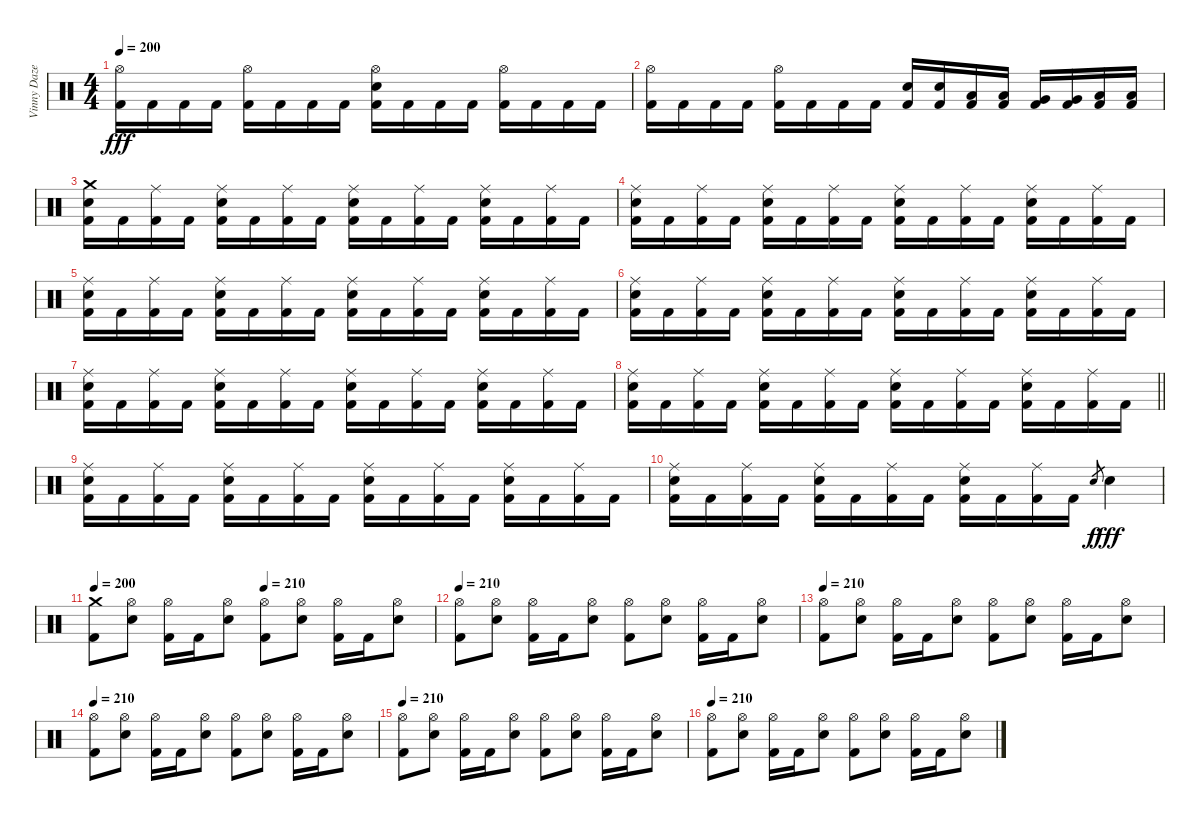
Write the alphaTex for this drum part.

\track ("Vinny Daze (R.I.P.)" "Vinny Daze") {instrument percussion}
\staff {score}
\articulation defaults
\ts (4 4)
\tempo 200
\clef neutral
\ks c
("Hi-Hat (open)" "Kick (hit) 2").16{dy fff} "Kick (hit) 2".16 "Kick (hit) 2".16 "Kick (hit) 2".16 ("Hi-Hat (open)" "Kick (hit) 2").16 "Kick (hit) 2".16 "Kick (hit) 2".16 "Kick (hit) 2".16 ("Hi-Hat (open)" "Electric Snare (hit)" "Kick (hit) 2").16 "Kick (hit) 2".16 "Kick (hit) 2".16 "Kick (hit) 2".16 ("Hi-Hat (open)" "Kick (hit) 2").16 "Kick (hit) 2".16 "Kick (hit) 2".16 "Kick (hit) 2".16 |
("Hi-Hat (open)" "Kick (hit) 2").16 "Kick (hit) 2".16 "Kick (hit) 2".16 "Kick (hit) 2".16 ("Hi-Hat (open)" "Kick (hit) 2").16 "Kick (hit) 2".16 "Kick (hit) 2".16 "Kick (hit) 2".16 ("Electric Snare (hit)" "Kick (hit) 2").16 ("Electric Snare (hit)" "Kick (hit) 2").16 ("Low Tom (hit)" "Kick (hit) 2").16 ("Low Tom (hit)" "Kick (hit) 2").16 ("Very Low Tom (hit)" "Kick (hit) 2").16 ("Very Low Tom (hit)" "Kick (hit) 2").16 ("Low Floor Tom (hit)" "Kick (hit) 2").16 ("Low Floor Tom (hit)" "Kick (hit) 2").16 |
("Crash medium (hit)" "Electric Snare (hit)" "Kick (hit) 2").16 "Kick (hit) 2".16 ("Ride (middle)" "Kick (hit) 2").16 "Kick (hit) 2".16 ("Ride (middle)" "Electric Snare (hit)" "Kick (hit) 2").16 "Kick (hit) 2".16 ("Ride (middle)" "Kick (hit) 2").16 "Kick (hit) 2".16 ("Ride (middle)" "Electric Snare (hit)" "Kick (hit) 2").16 "Kick (hit) 2".16 ("Ride (middle)" "Kick (hit) 2").16 "Kick (hit) 2".16 ("Ride (middle)" "Electric Snare (hit)" "Kick (hit) 2").16 "Kick (hit) 2".16 ("Ride (middle)" "Kick (hit) 2").16 "Kick (hit) 2".16 |
("Ride (middle)" "Electric Snare (hit)" "Kick (hit) 2").16 "Kick (hit) 2".16 ("Ride (middle)" "Kick (hit) 2").16 "Kick (hit) 2".16 ("Ride (middle)" "Electric Snare (hit)" "Kick (hit) 2").16 "Kick (hit) 2".16 ("Ride (middle)" "Kick (hit) 2").16 "Kick (hit) 2".16 ("Ride (middle)" "Electric Snare (hit)" "Kick (hit) 2").16 "Kick (hit) 2".16 ("Ride (middle)" "Kick (hit) 2").16 "Kick (hit) 2".16 ("Ride (middle)" "Electric Snare (hit)" "Kick (hit) 2").16 "Kick (hit) 2".16 ("Ride (middle)" "Kick (hit) 2").16 "Kick (hit) 2".16 |
("Ride (middle)" "Electric Snare (hit)" "Kick (hit) 2").16 "Kick (hit) 2".16 ("Ride (middle)" "Kick (hit) 2").16 "Kick (hit) 2".16 ("Ride (middle)" "Electric Snare (hit)" "Kick (hit) 2").16 "Kick (hit) 2".16 ("Ride (middle)" "Kick (hit) 2").16 "Kick (hit) 2".16 ("Ride (middle)" "Electric Snare (hit)" "Kick (hit) 2").16 "Kick (hit) 2".16 ("Ride (middle)" "Kick (hit) 2").16 "Kick (hit) 2".16 ("Ride (middle)" "Electric Snare (hit)" "Kick (hit) 2").16 "Kick (hit) 2".16 ("Ride (middle)" "Kick (hit) 2").16 "Kick (hit) 2".16 |
("Ride (middle)" "Electric Snare (hit)" "Kick (hit) 2").16 "Kick (hit) 2".16 ("Ride (middle)" "Kick (hit) 2").16 "Kick (hit) 2".16 ("Ride (middle)" "Electric Snare (hit)" "Kick (hit) 2").16 "Kick (hit) 2".16 ("Ride (middle)" "Kick (hit) 2").16 "Kick (hit) 2".16 ("Ride (middle)" "Electric Snare (hit)" "Kick (hit) 2").16 "Kick (hit) 2".16 ("Ride (middle)" "Kick (hit) 2").16 "Kick (hit) 2".16 ("Ride (middle)" "Electric Snare (hit)" "Kick (hit) 2").16 "Kick (hit) 2".16 ("Ride (middle)" "Kick (hit) 2").16 "Kick (hit) 2".16 |
("Ride (middle)" "Electric Snare (hit)" "Kick (hit) 2").16 "Kick (hit) 2".16 ("Ride (middle)" "Kick (hit) 2").16 "Kick (hit) 2".16 ("Ride (middle)" "Electric Snare (hit)" "Kick (hit) 2").16 "Kick (hit) 2".16 ("Ride (middle)" "Kick (hit) 2").16 "Kick (hit) 2".16 ("Ride (middle)" "Electric Snare (hit)" "Kick (hit) 2").16 "Kick (hit) 2".16 ("Ride (middle)" "Kick (hit) 2").16 "Kick (hit) 2".16 ("Ride (middle)" "Electric Snare (hit)" "Kick (hit) 2").16 "Kick (hit) 2".16 ("Ride (middle)" "Kick (hit) 2").16 "Kick (hit) 2".16 |
\barLineRight lightlight
("Ride (middle)" "Electric Snare (hit)" "Kick (hit) 2").16 "Kick (hit) 2".16 ("Ride (middle)" "Kick (hit) 2").16 "Kick (hit) 2".16 ("Ride (middle)" "Electric Snare (hit)" "Kick (hit) 2").16 "Kick (hit) 2".16 ("Ride (middle)" "Kick (hit) 2").16 "Kick (hit) 2".16 ("Ride (middle)" "Electric Snare (hit)" "Kick (hit) 2").16 "Kick (hit) 2".16 ("Ride (middle)" "Kick (hit) 2").16 "Kick (hit) 2".16 ("Ride (middle)" "Electric Snare (hit)" "Kick (hit) 2").16 "Kick (hit) 2".16 ("Ride (middle)" "Kick (hit) 2").16 "Kick (hit) 2".16 |
\section ("" "")
("Ride (middle)" "Electric Snare (hit)" "Kick (hit) 2").16 "Kick (hit) 2".16 ("Ride (middle)" "Kick (hit) 2").16 "Kick (hit) 2".16 ("Ride (middle)" "Electric Snare (hit)" "Kick (hit) 2").16 "Kick (hit) 2".16 ("Ride (middle)" "Kick (hit) 2").16 "Kick (hit) 2".16 ("Ride (middle)" "Electric Snare (hit)" "Kick (hit) 2").16 "Kick (hit) 2".16 ("Ride (middle)" "Kick (hit) 2").16 "Kick (hit) 2".16 ("Ride (middle)" "Electric Snare (hit)" "Kick (hit) 2").16 "Kick (hit) 2".16 ("Ride (middle)" "Kick (hit) 2").16 "Kick (hit) 2".16 |
("Ride (middle)" "Electric Snare (hit)" "Kick (hit) 2").16 "Kick (hit) 2".16 ("Ride (middle)" "Kick (hit) 2").16 "Kick (hit) 2".16 ("Ride (middle)" "Electric Snare (hit)" "Kick (hit) 2").16 "Kick (hit) 2".16 ("Ride (middle)" "Kick (hit) 2").16 "Kick (hit) 2".16 ("Ride (middle)" "Electric Snare (hit)" "Kick (hit) 2").16 "Kick (hit) 2".16 ("Ride (middle)" "Kick (hit) 2").16 "Kick (hit) 2".16 "Electric Snare (hit)".8{gr dy f} "Electric Snare (hit)".4{dy fff} |
\tempo 200
\tempo (210 0.5)
("Crash medium (hit)" "Kick (hit) 2").8 ("Hi-Hat (open)" "Electric Snare (hit)").8 ("Hi-Hat (open)" "Kick (hit) 2").16 "Kick (hit) 2".16 ("Hi-Hat (open)" "Electric Snare (hit)").8 ("Hi-Hat (open)" "Kick (hit) 2").8 ("Hi-Hat (open)" "Electric Snare (hit)").8 ("Hi-Hat (open)" "Kick (hit) 2").16 "Kick (hit) 2".16 ("Hi-Hat (open)" "Electric Snare (hit)").8 |
\tempo 210
("Hi-Hat (open)" "Kick (hit) 2").8 ("Hi-Hat (open)" "Electric Snare (hit)").8 ("Hi-Hat (open)" "Kick (hit) 2").16 "Kick (hit) 2".16 ("Hi-Hat (open)" "Electric Snare (hit)").8 ("Hi-Hat (open)" "Kick (hit) 2").8 ("Hi-Hat (open)" "Electric Snare (hit)").8 ("Hi-Hat (open)" "Kick (hit) 2").16 "Kick (hit) 2".16 ("Hi-Hat (open)" "Electric Snare (hit)").8 |
\tempo 210
("Hi-Hat (open)" "Kick (hit) 2").8 ("Hi-Hat (open)" "Electric Snare (hit)").8 ("Hi-Hat (open)" "Kick (hit) 2").16 "Kick (hit) 2".16 ("Hi-Hat (open)" "Electric Snare (hit)").8 ("Hi-Hat (open)" "Kick (hit) 2").8 ("Hi-Hat (open)" "Electric Snare (hit)").8 ("Hi-Hat (open)" "Kick (hit) 2").16 "Kick (hit) 2".16 ("Hi-Hat (open)" "Electric Snare (hit)").8 |
\tempo 210
("Hi-Hat (open)" "Kick (hit) 2").8 ("Hi-Hat (open)" "Electric Snare (hit)").8 ("Hi-Hat (open)" "Kick (hit) 2").16 "Kick (hit) 2".16 ("Hi-Hat (open)" "Electric Snare (hit)").8 ("Hi-Hat (open)" "Kick (hit) 2").8 ("Hi-Hat (open)" "Electric Snare (hit)").8 ("Hi-Hat (open)" "Kick (hit) 2").16 "Kick (hit) 2".16 ("Hi-Hat (open)" "Electric Snare (hit)").8 |
\tempo 210
("Hi-Hat (open)" "Kick (hit) 2").8 ("Hi-Hat (open)" "Electric Snare (hit)").8 ("Hi-Hat (open)" "Kick (hit) 2").16 "Kick (hit) 2".16 ("Hi-Hat (open)" "Electric Snare (hit)").8 ("Hi-Hat (open)" "Kick (hit) 2").8 ("Hi-Hat (open)" "Electric Snare (hit)").8 ("Hi-Hat (open)" "Kick (hit) 2").16 "Kick (hit) 2".16 ("Hi-Hat (open)" "Electric Snare (hit)").8 |
\tempo 210
("Hi-Hat (open)" "Kick (hit) 2").8 ("Hi-Hat (open)" "Electric Snare (hit)").8 ("Hi-Hat (open)" "Kick (hit) 2").16 "Kick (hit) 2".16 ("Hi-Hat (open)" "Electric Snare (hit)").8 ("Hi-Hat (open)" "Kick (hit) 2").8 ("Hi-Hat (open)" "Electric Snare (hit)").8 ("Hi-Hat (open)" "Kick (hit) 2").16 "Kick (hit) 2".16 ("Hi-Hat (open)" "Electric Snare (hit)").8
